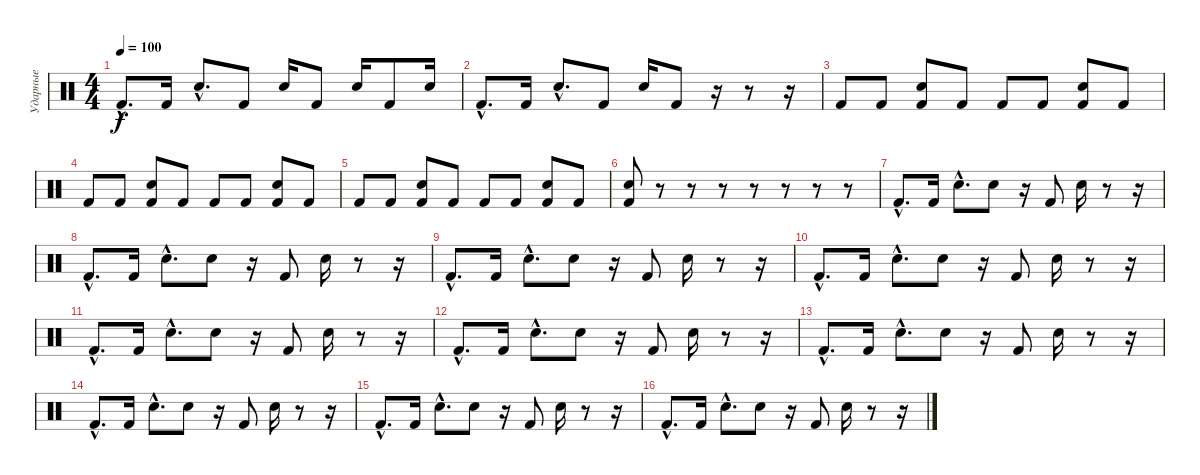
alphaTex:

\track ("Ударные" "Ударные") {instrument percussion}
\staff {score}
\articulation defaults
\ts (4 4)
\tempo 100
\clef neutral
\ks c "Kick (hit) 2"{hac}.8{d dy f} "Kick (hit) 2".16 "Snare (hit) 2"{hac}.8{d} "Kick (hit) 2".8 "Snare (hit) 2".16 "Kick (hit) 2".8 "Snare (hit) 2".16 "Kick (hit) 2".8 "Snare (hit) 2".16
|
"Kick (hit) 2"{hac}.8{d} "Kick (hit) 2".16 "Snare (hit) 2"{hac}.8{d} "Kick (hit) 2".8 "Snare (hit) 2".16 "Kick (hit) 2".8 r.16 r.8 r.16 |
"Kick (hit) 2".8 "Kick (hit) 2".8 ("Snare (hit) 2" "Kick (hit) 2").8 "Kick (hit) 2".8 "Kick (hit) 2".8 "Kick (hit) 2".8 ("Snare (hit) 2" "Kick (hit) 2").8 "Kick (hit) 2".8 |
"Kick (hit) 2".8 "Kick (hit) 2".8 ("Snare (hit) 2" "Kick (hit) 2").8 "Kick (hit) 2".8 "Kick (hit) 2".8 "Kick (hit) 2".8 ("Snare (hit) 2" "Kick (hit) 2").8 "Kick (hit) 2".8 |
"Kick (hit) 2".8 "Kick (hit) 2".8 ("Snare (hit) 2" "Kick (hit) 2").8 "Kick (hit) 2".8 "Kick (hit) 2".8 "Kick (hit) 2".8 ("Snare (hit) 2" "Kick (hit) 2").8 "Kick (hit) 2".8 |
("Snare (hit) 2" "Kick (hit) 2").8 r.8 r.8 r.8 r.8 r.8 r.8 r.8 |
"Kick (hit) 2"{hac}.8{d} "Kick (hit) 2".16 "Snare (hit) 2"{hac}.8{d} "Snare (hit) 2".8 r.16 "Kick (hit) 2".8 "Snare (hit) 2".16 r.8 r.16 |
"Kick (hit) 2"{hac}.8{d} "Kick (hit) 2".16 "Snare (hit) 2"{hac}.8{d} "Snare (hit) 2".8 r.16 "Kick (hit) 2".8 "Snare (hit) 2".16 r.8 r.16 |
"Kick (hit) 2"{hac}.8{d} "Kick (hit) 2".16 "Snare (hit) 2"{hac}.8{d} "Snare (hit) 2".8 r.16 "Kick (hit) 2".8 "Snare (hit) 2".16 r.8 r.16 |
"Kick (hit) 2"{hac}.8{d} "Kick (hit) 2".16 "Snare (hit) 2"{hac}.8{d} "Snare (hit) 2".8 r.16 "Kick (hit) 2".8 "Snare (hit) 2".16 r.8 r.16 |
"Kick (hit) 2"{hac}.8{d} "Kick (hit) 2".16 "Snare (hit) 2"{hac}.8{d} "Snare (hit) 2".8 r.16 "Kick (hit) 2".8 "Snare (hit) 2".16 r.8 r.16 |
"Kick (hit) 2"{hac}.8{d} "Kick (hit) 2".16 "Snare (hit) 2"{hac}.8{d} "Snare (hit) 2".8 r.16 "Kick (hit) 2".8 "Snare (hit) 2".16 r.8 r.16 |
"Kick (hit) 2"{hac}.8{d} "Kick (hit) 2".16 "Snare (hit) 2"{hac}.8{d} "Snare (hit) 2".8 r.16 "Kick (hit) 2".8 "Snare (hit) 2".16 r.8 r.16 |
"Kick (hit) 2"{hac}.8{d} "Kick (hit) 2".16 "Snare (hit) 2"{hac}.8{d} "Snare (hit) 2".8 r.16 "Kick (hit) 2".8 "Snare (hit) 2".16 r.8 r.16 |
"Kick (hit) 2"{hac}.8{d} "Kick (hit) 2".16 "Snare (hit) 2"{hac}.8{d} "Snare (hit) 2".8 r.16 "Kick (hit) 2".8 "Snare (hit) 2".16 r.8 r.16 |
"Kick (hit) 2"{hac}.8{d} "Kick (hit) 2".16 "Snare (hit) 2"{hac}.8{d} "Snare (hit) 2".8 r.16 "Kick (hit) 2".8 "Snare (hit) 2".16 r.8 r.16
